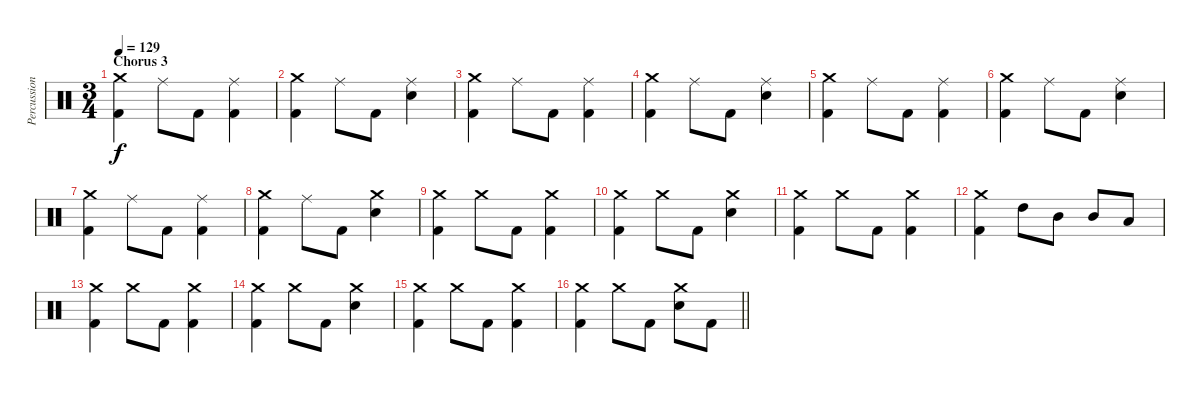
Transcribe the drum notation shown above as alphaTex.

\track ("Percussion" "Percussion") {instrument percussion}
\staff {score}
\articulation defaults
\ts (3 4)
\section ("" "Chorus 3")
\tempo 129
\clef neutral
\ks c
("Crash medium (hit)" "Kick (hit) 2").4{dy f} "Ride (middle)".8 "Kick (hit) 2".8 ("Ride (middle)" "Kick (hit) 2").4 |
("Crash medium (hit)" "Kick (hit) 2").4 "Ride (middle)".8 "Kick (hit) 2".8 ("Ride (middle)" "Electric Snare (hit)").4 |
("Crash medium (hit)" "Kick (hit) 2").4 "Ride (middle)".8 "Kick (hit) 2".8 ("Ride (middle)" "Kick (hit) 2").4 |
("Crash medium (hit)" "Kick (hit) 2").4 "Ride (middle)".8 "Kick (hit) 2".8 ("Ride (middle)" "Electric Snare (hit)").4 |
("Crash medium (hit)" "Kick (hit) 2").4 "Ride (middle)".8 "Kick (hit) 2".8 ("Ride (middle)" "Kick (hit) 2").4 |
("Crash medium (hit)" "Kick (hit) 2").4 "Ride (middle)".8 "Kick (hit) 2".8 ("Ride (middle)" "Electric Snare (hit)").4 |
("Crash medium (hit)" "Kick (hit) 2").4 "Ride (middle)".8 "Kick (hit) 2".8 ("Ride (middle)" "Kick (hit) 2").4 |
("Crash medium (hit)" "Kick (hit) 2").4 "Ride (middle)".8 "Kick (hit) 2".8 ("Crash medium (hit)" "Electric Snare (hit)").4 |
("Crash medium (hit)" "Kick (hit) 2").4 "Crash medium (hit)".8 "Kick (hit) 2".8 ("Crash medium (hit)" "Kick (hit) 2").4 |
("Crash medium (hit)" "Kick (hit) 2").4 "Crash medium (hit)".8 "Kick (hit) 2".8 ("Crash medium (hit)" "Electric Snare (hit)").4 |
("Crash medium (hit)" "Kick (hit) 2").4 "Crash medium (hit)".8 "Kick (hit) 2".8 ("Crash medium (hit)" "Kick (hit) 2").4 |
("Crash medium (hit)" "Kick (hit) 2").4 "High Tom (hit)".8 "Mid Tom (hit)".8 "Mid Tom (hit)".8 "Low Tom (hit)".8 |
("Crash medium (hit)" "Kick (hit) 2").4 "Crash medium (hit)".8 "Kick (hit) 2".8 ("Crash medium (hit)" "Kick (hit) 2").4 |
("Crash medium (hit)" "Kick (hit) 2").4 "Crash medium (hit)".8 "Kick (hit) 2".8 ("Crash medium (hit)" "Electric Snare (hit)").4 |
("Crash medium (hit)" "Kick (hit) 2").4 "Crash medium (hit)".8 "Kick (hit) 2".8 ("Crash medium (hit)" "Kick (hit) 2").4 |
\barLineRight lightlight
("Crash medium (hit)" "Kick (hit) 2").4 "Crash medium (hit)".8 "Kick (hit) 2".8 ("Crash medium (hit)" "Electric Snare (hit)").8 "Kick (hit) 2".8
